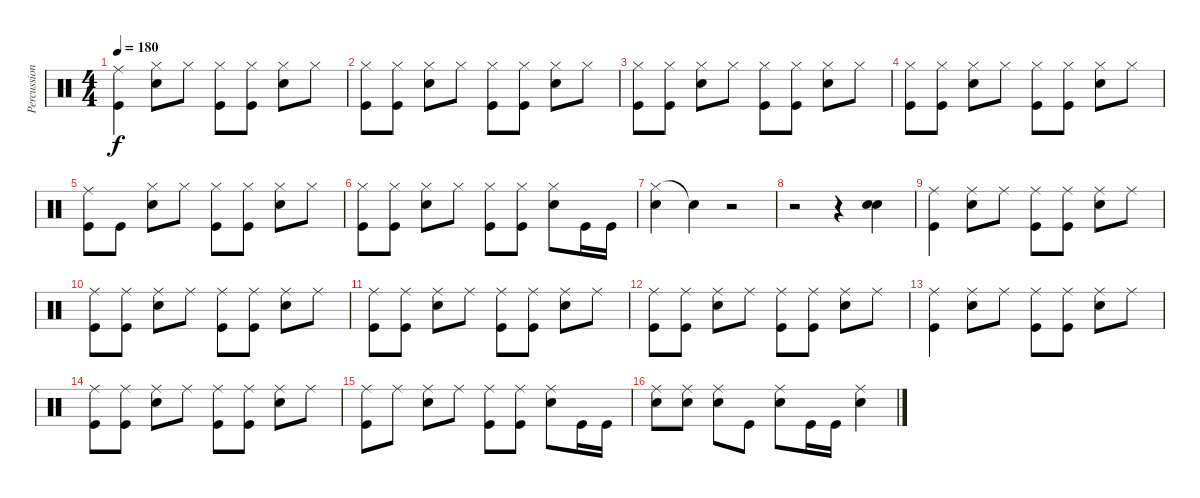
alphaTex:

\track ("Percussion" "Percussion") {instrument percussion}
\staff {score}
\articulation defaults
\ts (4 4)
\tempo 180
\clef neutral
\ks c
("Ride (middle)" "Kick (hit)").4{dy f} ("Hi-Hat (closed)" "Snare (hit) 2").8 "Hi-Hat (closed)".8 ("Hi-Hat (closed)" "Kick (hit)").8 ("Hi-Hat (closed)" "Kick (hit)").8 ("Hi-Hat (closed)" "Snare (hit) 2").8 "Hi-Hat (closed)".8 |
("Hi-Hat (closed)" "Kick (hit)").8 ("Hi-Hat (closed)" "Kick (hit)").8 ("Hi-Hat (closed)" "Snare (hit) 2").8 "Hi-Hat (closed)".8 ("Hi-Hat (closed)" "Kick (hit)").8 ("Hi-Hat (closed)" "Kick (hit)").8 ("Hi-Hat (closed)" "Snare (hit) 2").8 "Hi-Hat (closed)".8 |
("Hi-Hat (closed)" "Kick (hit)").8 ("Hi-Hat (closed)" "Kick (hit)").8 ("Hi-Hat (closed)" "Snare (hit) 2").8 "Hi-Hat (closed)".8 ("Hi-Hat (closed)" "Kick (hit)").8 ("Hi-Hat (closed)" "Kick (hit)").8 ("Hi-Hat (closed)" "Snare (hit) 2").8 "Hi-Hat (closed)".8 |
("Hi-Hat (closed)" "Kick (hit)").8 ("Hi-Hat (closed)" "Kick (hit)").8 ("Hi-Hat (closed)" "Snare (hit) 2").8 "Hi-Hat (closed)".8 ("Hi-Hat (closed)" "Kick (hit)").8 ("Hi-Hat (closed)" "Kick (hit)").8 ("Hi-Hat (closed)" "Snare (hit) 2").8 "Hi-Hat (closed)".8 |
("Ride (middle)" "Kick (hit)").8 "Kick (hit)".8 ("Hi-Hat (closed)" "Snare (hit) 2").8 "Hi-Hat (closed)".8 ("Hi-Hat (closed)" "Kick (hit)").8 ("Hi-Hat (closed)" "Kick (hit)").8 ("Hi-Hat (closed)" "Snare (hit) 2").8 "Hi-Hat (closed)".8 |
("Hi-Hat (closed)" "Kick (hit)").8 ("Hi-Hat (closed)" "Kick (hit)").8 ("Hi-Hat (closed)" "Snare (hit) 2").8 "Hi-Hat (closed)".8 ("Hi-Hat (closed)" "Kick (hit)").8 ("Hi-Hat (closed)" "Kick (hit)").8 ("Hi-Hat (closed)" "Snare (hit) 2").8 "Kick (hit)".16 "Kick (hit)".16 |
("Hi-Hat (closed)" "Snare (hit) 2").4 "Snare (hit)"{t}.4 r.2 |
r.2 r.4 ("Snare (hit) 2" "Electric Snare (hit)").4 |
("Ride (middle)" "Kick (hit)").4 ("Ride (middle)" "Snare (hit) 2").8 "Ride (middle)".8 ("Ride (middle)" "Kick (hit)").8 ("Ride (middle)" "Kick (hit)").8 ("Ride (middle)" "Snare (hit) 2").8 "Ride (middle)".8 |
("Ride (middle)" "Kick (hit)").8 ("Ride (middle)" "Kick (hit)").8 ("Ride (middle)" "Snare (hit) 2").8 "Ride (middle)".8 ("Ride (middle)" "Kick (hit)").8 ("Ride (middle)" "Kick (hit)").8 ("Ride (middle)" "Snare (hit) 2").8 "Ride (middle)".8 |
("Ride (middle)" "Kick (hit)").8 ("Ride (middle)" "Kick (hit)").8 ("Ride (middle)" "Snare (hit) 2").8 "Ride (middle)".8 ("Ride (middle)" "Kick (hit)").8 ("Ride (middle)" "Kick (hit)").8 ("Ride (middle)" "Snare (hit) 2").8 "Ride (middle)".8 |
("Ride (middle)" "Kick (hit)").8 ("Ride (middle)" "Kick (hit)").8 ("Ride (middle)" "Snare (hit) 2").8 "Ride (middle)".8 ("Ride (middle)" "Kick (hit)").8 ("Ride (middle)" "Kick (hit)").8 ("Ride (middle)" "Snare (hit) 2").8 "Ride (middle)".8 |
("Ride (middle)" "Kick (hit)").4 ("Ride (middle)" "Snare (hit) 2").8 "Ride (middle)".8 ("Ride (middle)" "Kick (hit)").8 ("Ride (middle)" "Kick (hit)").8 ("Ride (middle)" "Snare (hit) 2").8 "Ride (middle)".8 |
("Ride (middle)" "Kick (hit)").8 ("Ride (middle)" "Kick (hit)").8 ("Ride (middle)" "Snare (hit) 2").8 "Ride (middle)".8 ("Ride (middle)" "Kick (hit)").8 ("Ride (middle)" "Kick (hit)").8 ("Ride (middle)" "Snare (hit) 2").8 "Ride (middle)".8 |
("Ride (middle)" "Kick (hit)").8 "Ride (middle)".8 ("Ride (middle)" "Snare (hit) 2").8 "Ride (middle)".8 ("Ride (middle)" "Kick (hit)").8 ("Ride (middle)" "Kick (hit)").8 ("Ride (middle)" "Snare (hit) 2").8 "Kick (hit)".16 "Kick (hit)".16 |
("Ride (middle)" "Snare (hit) 2").8 ("Ride (middle)" "Snare (hit) 2").8 ("Ride (middle)" "Snare (hit) 2").8 "Kick (hit)".8 ("Ride (middle)" "Snare (hit) 2").8 "Kick (hit)".16 "Kick (hit)".16 ("Ride (middle)" "Snare (hit) 2").4
